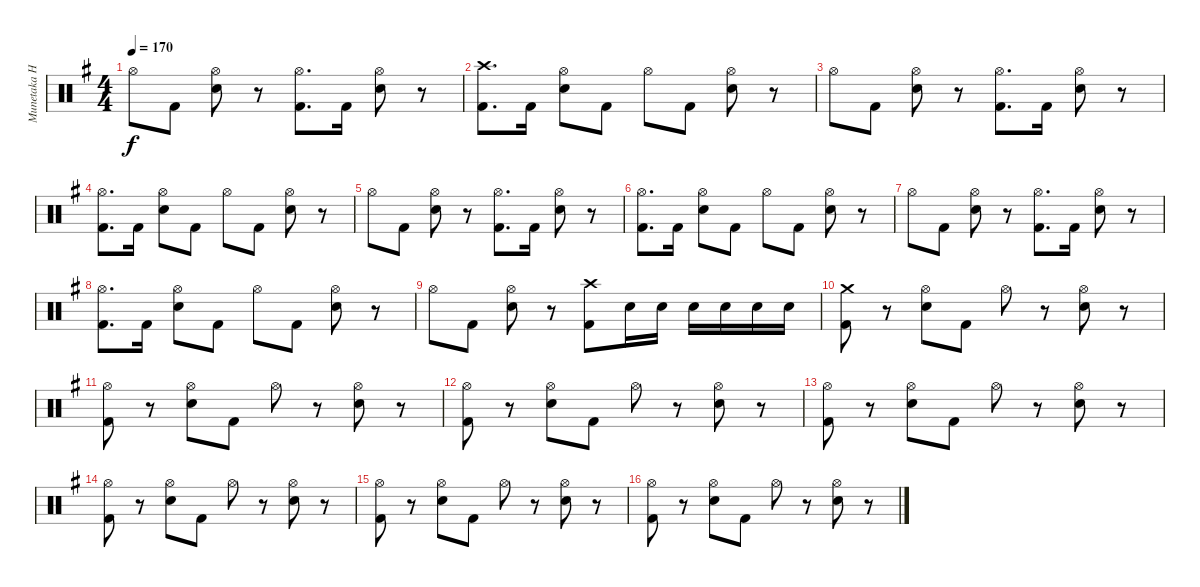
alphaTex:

\track ("Munetaka Higuchi" "Munetaka H") {instrument percussion}
\staff {score}
\articulation defaults
\ts (4 4)
\tempo 170
\clef neutral
\ks eminor "Hi-Hat (open)".8{dy f} "Kick (hit) 2".8
("Hi-Hat (open)" "Electric Snare (hit)").8 r.8 ("Hi-Hat (open)" "Kick (hit) 2").8{d} "Kick (hit) 2".16 ("Hi-Hat (open)" "Electric Snare (hit)").8 r.8 |
("Crash high (hit)" "Kick (hit) 2").8{d} "Kick (hit) 2".16 ("Hi-Hat (open)" "Electric Snare (hit)").8 "Kick (hit) 2".8 "Hi-Hat (open)".8 "Kick (hit) 2".8 ("Hi-Hat (open)" "Electric Snare (hit)").8 r.8 |
"Hi-Hat (open)".8 "Kick (hit) 2".8 ("Hi-Hat (open)" "Electric Snare (hit)").8 r.8 ("Hi-Hat (open)" "Kick (hit) 2").8{d} "Kick (hit) 2".16 ("Hi-Hat (open)" "Electric Snare (hit)").8 r.8 |
("Hi-Hat (open)" "Kick (hit) 2").8{d} "Kick (hit) 2".16 ("Hi-Hat (open)" "Electric Snare (hit)").8 "Kick (hit) 2".8 "Hi-Hat (open)".8 "Kick (hit) 2".8 ("Hi-Hat (open)" "Electric Snare (hit)").8 r.8 |
"Hi-Hat (open)".8 "Kick (hit) 2".8 ("Hi-Hat (open)" "Electric Snare (hit)").8 r.8 ("Hi-Hat (open)" "Kick (hit) 2").8{d} "Kick (hit) 2".16 ("Hi-Hat (open)" "Electric Snare (hit)").8 r.8 |
("Hi-Hat (open)" "Kick (hit) 2").8{d} "Kick (hit) 2".16 ("Hi-Hat (open)" "Electric Snare (hit)").8 "Kick (hit) 2".8 "Hi-Hat (open)".8 "Kick (hit) 2".8 ("Hi-Hat (open)" "Electric Snare (hit)").8 r.8 |
"Hi-Hat (open)".8 "Kick (hit) 2".8 ("Hi-Hat (open)" "Electric Snare (hit)").8 r.8 ("Hi-Hat (open)" "Kick (hit) 2").8{d} "Kick (hit) 2".16 ("Hi-Hat (open)" "Electric Snare (hit)").8 r.8 |
("Hi-Hat (open)" "Kick (hit) 2").8{d} "Kick (hit) 2".16 ("Hi-Hat (open)" "Electric Snare (hit)").8 "Kick (hit) 2".8 "Hi-Hat (open)".8 "Kick (hit) 2".8 ("Hi-Hat (open)" "Electric Snare (hit)").8 r.8 |
"Hi-Hat (open)".8 "Kick (hit) 2".8 ("Hi-Hat (open)" "Electric Snare (hit)").8 r.8 ("Crash high (hit)" "Kick (hit) 2").8 "Electric Snare (hit)".16 "Electric Snare (hit)".16 "Electric Snare (hit)".16 "Electric Snare (hit)".16 "Electric Snare (hit)".16 "Electric Snare (hit)".16 |
("Crash medium (hit)" "Kick (hit) 2").8 r.8 ("Hi-Hat (open)" "Electric Snare (hit)").8 "Kick (hit) 2".8 "Hi-Hat (open)".8 r.8 ("Hi-Hat (open)" "Electric Snare (hit)").8 r.8 |
("Hi-Hat (open)" "Kick (hit) 2").8 r.8 ("Hi-Hat (open)" "Electric Snare (hit)").8 "Kick (hit) 2".8 "Hi-Hat (open)".8 r.8 ("Hi-Hat (open)" "Electric Snare (hit)").8 r.8 |
("Hi-Hat (open)" "Kick (hit) 2").8 r.8 ("Hi-Hat (open)" "Electric Snare (hit)").8 "Kick (hit) 2".8 "Hi-Hat (open)".8 r.8 ("Hi-Hat (open)" "Electric Snare (hit)").8 r.8 |
("Hi-Hat (open)" "Kick (hit) 2").8 r.8 ("Hi-Hat (open)" "Electric Snare (hit)").8 "Kick (hit) 2".8 "Hi-Hat (open)".8 r.8 ("Hi-Hat (open)" "Electric Snare (hit)").8 r.8 |
("Hi-Hat (open)" "Kick (hit) 2").8 r.8 ("Hi-Hat (open)" "Electric Snare (hit)").8 "Kick (hit) 2".8 "Hi-Hat (open)".8 r.8 ("Hi-Hat (open)" "Electric Snare (hit)").8 r.8 |
("Hi-Hat (open)" "Kick (hit) 2").8 r.8 ("Hi-Hat (open)" "Electric Snare (hit)").8 "Kick (hit) 2".8 "Hi-Hat (open)".8 r.8 ("Hi-Hat (open)" "Electric Snare (hit)").8 r.8 |
("Hi-Hat (open)" "Kick (hit) 2").8 r.8 ("Hi-Hat (open)" "Electric Snare (hit)").8 "Kick (hit) 2".8 "Hi-Hat (open)".8 r.8 ("Hi-Hat (open)" "Electric Snare (hit)").8 r.8
